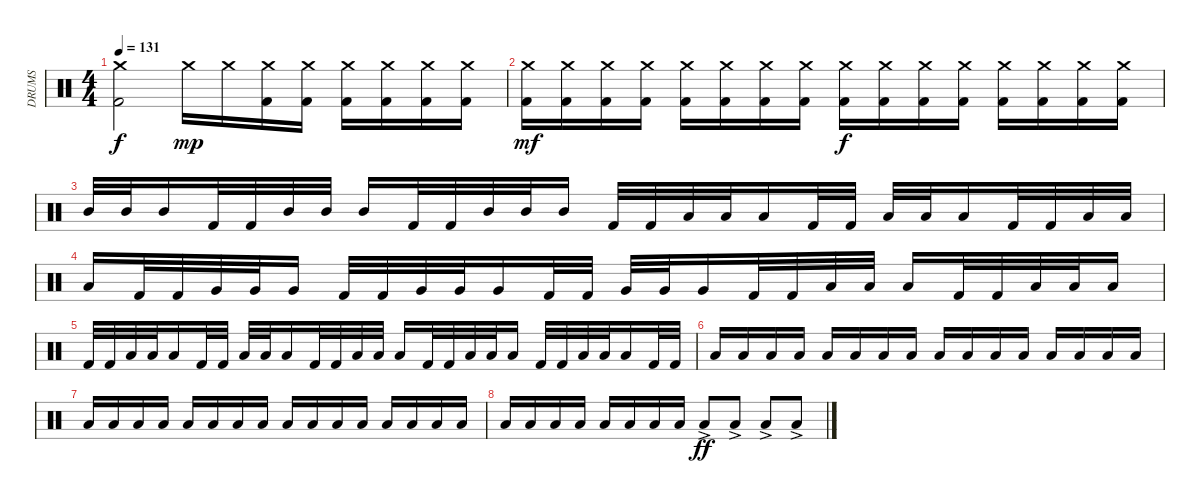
\track ("DRUMS" "DRUMS") {instrument percussion}
\staff {score}
\articulation defaults
\ts (4 4)
\tempo 131
\clef neutral
\ks c
("Crash medium (hit)" "Kick (hit) 2").2{dy f} "Crash medium (hit)".16{dy mp} "Crash medium (hit)".16 ("Crash medium (hit)" "Kick (hit) 2").16 ("Crash medium (hit)" "Kick (hit) 2").16 ("Crash medium (hit)" "Kick (hit) 2").16 ("Crash medium (hit)" "Kick (hit) 2").16 ("Crash medium (hit)" "Kick (hit) 2").16 ("Crash medium (hit)" "Kick (hit) 2").16 |
("Crash medium (hit)" "Kick (hit) 2").16{dy mf} ("Crash medium (hit)" "Kick (hit) 2").16 ("Crash medium (hit)" "Kick (hit) 2").16 ("Crash medium (hit)" "Kick (hit) 2").16 ("Crash medium (hit)" "Kick (hit) 2").16 ("Crash medium (hit)" "Kick (hit) 2").16 ("Crash medium (hit)" "Kick (hit) 2").16 ("Crash medium (hit)" "Kick (hit) 2").16 ("Crash medium (hit)" "Kick (hit) 2").16{dy f} ("Crash medium (hit)" "Kick (hit) 2").16 ("Crash medium (hit)" "Kick (hit) 2").16 ("Crash medium (hit)" "Kick (hit) 2").16 ("Crash medium (hit)" "Kick (hit) 2").16 ("Crash medium (hit)" "Kick (hit) 2").16 ("Crash medium (hit)" "Kick (hit) 2").16 ("Crash medium (hit)" "Kick (hit) 2").16 |
"Mid Tom (hit)".32 "Mid Tom (hit)".32 "Mid Tom (hit)".16 "Kick (hit) 2".32 "Kick (hit) 2".32 "Mid Tom (hit)".32 "Mid Tom (hit)".32 "Mid Tom (hit)".16 "Kick (hit) 2".32 "Kick (hit) 2".32 "Mid Tom (hit)".32 "Mid Tom (hit)".32 "Mid Tom (hit)".16 "Kick (hit) 2".32 "Kick (hit) 2".32 "Low Tom (hit)".32 "Low Tom (hit)".32 "Low Tom (hit)".16 "Kick (hit) 2".32 "Kick (hit) 2".32 "Low Tom (hit)".32 "Low Tom (hit)".32 "Low Tom (hit)".16 "Kick (hit) 2".32 "Kick (hit) 2".32 "Low Tom (hit)".32 "Low Tom (hit)".32 |
"Low Tom (hit)".16 "Kick (hit) 2".32 "Kick (hit) 2".32 "Very Low Tom (hit)".32 "Very Low Tom (hit)".32 "Very Low Tom (hit)".16 "Kick (hit) 2".32 "Kick (hit) 2".32 "Very Low Tom (hit)".32 "Very Low Tom (hit)".32 "Very Low Tom (hit)".16 "Kick (hit) 2".32 "Kick (hit) 2".32 "Very Low Tom (hit)".32 "Very Low Tom (hit)".32 "Very Low Tom (hit)".16 "Kick (hit) 2".32 "Kick (hit) 2".32 "Low Floor Tom (hit)".32 "Low Floor Tom (hit)".32 "Low Floor Tom (hit)".16 "Kick (hit) 2".32 "Kick (hit) 2".32 "Low Floor Tom (hit)".32 "Low Floor Tom (hit)".32 "Low Floor Tom (hit)".16 |
"Kick (hit) 2".32 "Kick (hit) 2".32 "Low Floor Tom (hit)".32 "Low Floor Tom (hit)".32 "Low Floor Tom (hit)".16 "Kick (hit) 2".32 "Kick (hit) 2".32 "Low Floor Tom (hit)".32 "Low Floor Tom (hit)".32 "Low Floor Tom (hit)".16 "Kick (hit) 2".32 "Kick (hit) 2".32 "Low Floor Tom (hit)".32 "Low Floor Tom (hit)".32 "Low Floor Tom (hit)".16 "Kick (hit) 2".32 "Kick (hit) 2".32 "Low Floor Tom (hit)".32 "Low Floor Tom (hit)".32 "Low Floor Tom (hit)".16 "Kick (hit) 2".32 "Kick (hit) 2".32 "Low Floor Tom (hit)".32 "Low Floor Tom (hit)".32 "Low Floor Tom (hit)".16 "Kick (hit) 2".32 "Kick (hit) 2".32 |
"Low Floor Tom (hit)".16 "Low Floor Tom (hit)".16 "Low Floor Tom (hit)".16 "Low Floor Tom (hit)".16 "Low Floor Tom (hit)".16 "Low Floor Tom (hit)".16 "Low Floor Tom (hit)".16 "Low Floor Tom (hit)".16 "Low Floor Tom (hit)".16 "Low Floor Tom (hit)".16 "Low Floor Tom (hit)".16 "Low Floor Tom (hit)".16 "Low Floor Tom (hit)".16 "Low Floor Tom (hit)".16 "Low Floor Tom (hit)".16 "Low Floor Tom (hit)".16 |
"Low Floor Tom (hit)".16 "Low Floor Tom (hit)".16 "Low Floor Tom (hit)".16 "Low Floor Tom (hit)".16 "Low Floor Tom (hit)".16 "Low Floor Tom (hit)".16 "Low Floor Tom (hit)".16 "Low Floor Tom (hit)".16 "Low Floor Tom (hit)".16 "Low Floor Tom (hit)".16 "Low Floor Tom (hit)".16 "Low Floor Tom (hit)".16 "Low Floor Tom (hit)".16 "Low Floor Tom (hit)".16 "Low Floor Tom (hit)".16 "Low Floor Tom (hit)".16 |
"Low Floor Tom (hit)".16 "Low Floor Tom (hit)".16 "Low Floor Tom (hit)".16 "Low Floor Tom (hit)".16 "Low Floor Tom (hit)".16 "Low Floor Tom (hit)".16 "Low Floor Tom (hit)".16 "Low Floor Tom (hit)".16 "Low Floor Tom (hit)"{ac}.8{dy ff} "Low Floor Tom (hit)"{ac}.8 "Low Floor Tom (hit)"{ac}.8 "Low Floor Tom (hit)"{ac}.8
